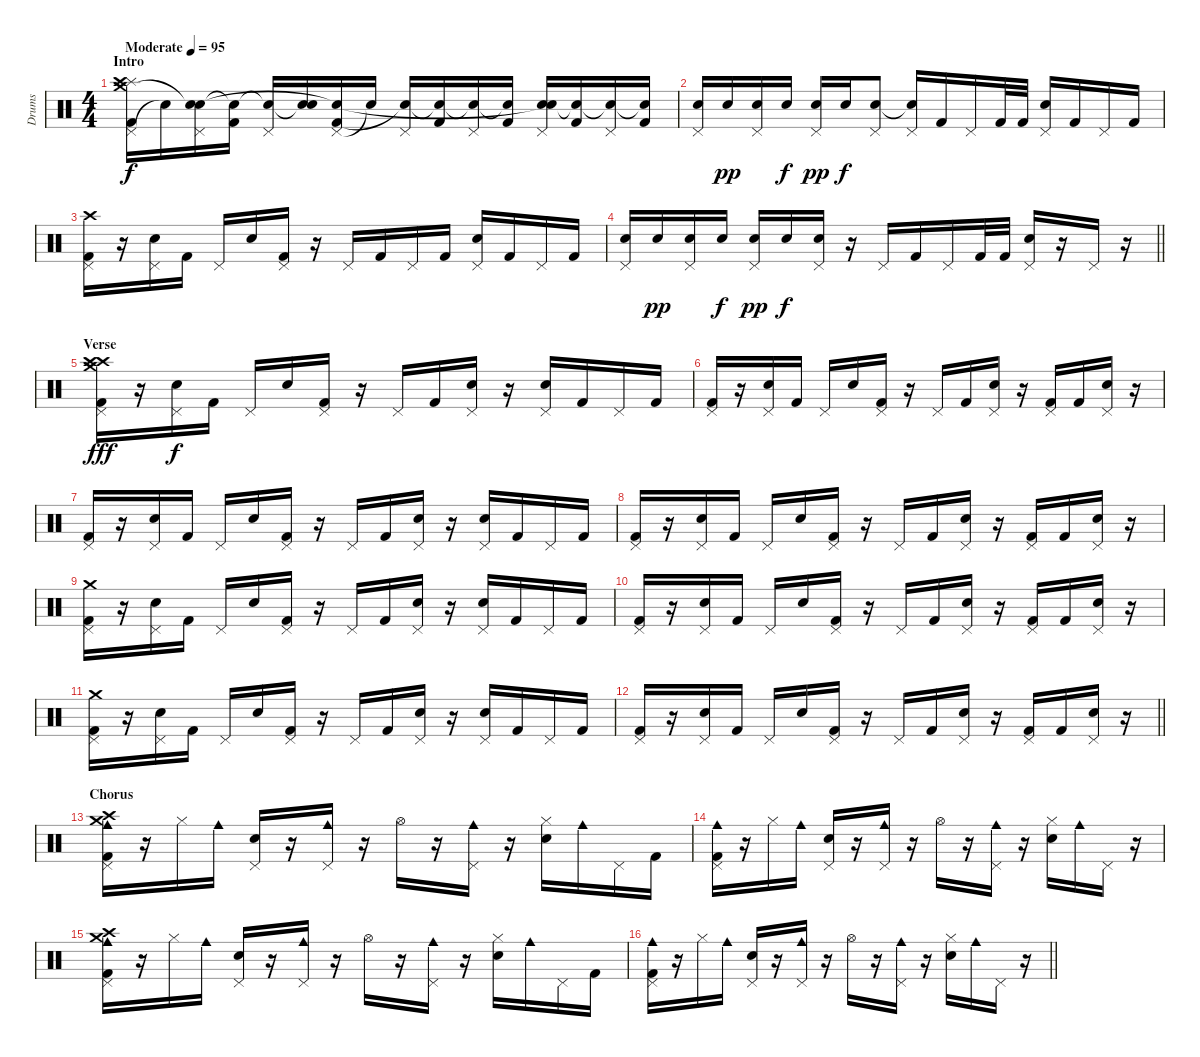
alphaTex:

\track ("Drums" "Drums") {instrument percussion}
\staff {score}
\articulation defaults
\ts (4 4)
\section ("" "Intro")
\tempo (95 "Moderate")
\clef neutral
\ks c
("Pedal Hi-Hat (hit)" "Kick (hit) 2" "Crash medium (hit)" "Splash (hit)" "Crash high (hit)").16{dy f} "Snare (hit)"{t}.16 ("Pedal Hi-Hat (hit)" "Snare (hit) 2" "Snare (hit)"{t}).16 ("Kick (hit) 2" "Snare (hit)"{t}).16 ("Pedal Hi-Hat (hit)" "Snare (hit)"{t}).16 ("Snare (hit) 2" "Snare (hit)"{t}).16 ("Pedal Hi-Hat (hit)" "Kick (hit) 2" "Snare (hit)"{t}).16 "Snare (hit)"{t}.16 ("Pedal Hi-Hat (hit)" "Snare (hit)"{t}).16 ("Kick (hit) 2" "Snare (hit)"{t}).16 ("Pedal Hi-Hat (hit)" "Snare (hit)"{t}).16 ("Kick (hit) 2" "Snare (hit)"{t}).16 ("Pedal Hi-Hat (hit)" "Snare (hit) 2" "Snare (hit)"{t}).16 ("Kick (hit) 2" "Snare (hit)"{t}).16 ("Pedal Hi-Hat (hit)" "Snare (hit)"{t}).16 ("Kick (hit) 2" "Snare (hit)"{t}).16 |
("Pedal Hi-Hat (hit)" "Snare (hit) 2").16 "Snare (hit) 2".16{dy pp} ("Pedal Hi-Hat (hit)" "Snare (hit) 2").16 "Snare (hit) 2".16{dy f} ("Pedal Hi-Hat (hit)" "Snare (hit) 2").16{dy pp} "Snare (hit) 2".16{dy f} ("Pedal Hi-Hat (hit)" "Snare (hit) 2").8 ("Pedal Hi-Hat (hit)" "Snare (hit)"{t}).16 "Kick (hit) 2".16 "Pedal Hi-Hat (hit)".16 "Kick (hit) 2".32 "Kick (hit) 2".32 ("Pedal Hi-Hat (hit)" "Snare (hit) 2").16 "Kick (hit) 2".16 "Pedal Hi-Hat (hit)".16 "Kick (hit) 2".16 |
("Pedal Hi-Hat (hit)" "Kick (hit) 2" "Crash high (hit)").16 r.16 ("Pedal Hi-Hat (hit)" "Snare (hit) 2").16 "Kick (hit) 2".16 "Pedal Hi-Hat (hit)".16 "Snare (hit) 2".16 ("Pedal Hi-Hat (hit)" "Kick (hit) 2").16 r.16 "Pedal Hi-Hat (hit)".16 "Kick (hit) 2".16 "Pedal Hi-Hat (hit)".16 "Kick (hit) 2".16 ("Pedal Hi-Hat (hit)" "Snare (hit) 2").16 "Kick (hit) 2".16 "Pedal Hi-Hat (hit)".16 "Kick (hit) 2".16 |
\barLineRight lightlight
("Pedal Hi-Hat (hit)" "Snare (hit) 2").16 "Snare (hit) 2".16{dy pp} ("Pedal Hi-Hat (hit)" "Snare (hit) 2").16 "Snare (hit) 2".16{dy f} ("Pedal Hi-Hat (hit)" "Snare (hit) 2").16{dy pp} "Snare (hit) 2".16{dy f} ("Pedal Hi-Hat (hit)" "Snare (hit) 2").16 r.16 "Pedal Hi-Hat (hit)".16 "Kick (hit) 2".16 "Pedal Hi-Hat (hit)".16 "Kick (hit) 2".32 "Kick (hit) 2".32 ("Pedal Hi-Hat (hit)" "Snare (hit) 2").16 r.16 "Pedal Hi-Hat (hit)".16 r.16 |
\section ("" "Verse")
("Pedal Hi-Hat (hit)" "Kick (hit) 2" "Crash high (hit)" "Crash medium (hit)" "Crash high (hit)").16{dy fff} r.16 ("Pedal Hi-Hat (hit)" "Snare (hit) 2").16{dy f} "Kick (hit) 2".16 "Pedal Hi-Hat (hit)".16 "Snare (hit) 2".16 ("Pedal Hi-Hat (hit)" "Kick (hit) 2").16 r.16 "Pedal Hi-Hat (hit)".16 "Kick (hit) 2".16 ("Pedal Hi-Hat (hit)" "Snare (hit) 2").16 r.16 ("Pedal Hi-Hat (hit)" "Snare (hit) 2").16 "Kick (hit) 2".16 "Pedal Hi-Hat (hit)".16 "Kick (hit) 2".16 |
("Pedal Hi-Hat (hit)" "Kick (hit) 2").16 r.16 ("Pedal Hi-Hat (hit)" "Snare (hit) 2").16 "Kick (hit) 2".16 "Pedal Hi-Hat (hit)".16 "Snare (hit) 2".16 ("Pedal Hi-Hat (hit)" "Kick (hit) 2").16 r.16 "Pedal Hi-Hat (hit)".16 "Kick (hit) 2".16 ("Pedal Hi-Hat (hit)" "Snare (hit) 2").16 r.16 ("Pedal Hi-Hat (hit)" "Kick (hit) 2").16 "Kick (hit) 2".16 ("Pedal Hi-Hat (hit)" "Snare (hit) 2").16 r.16 |
("Pedal Hi-Hat (hit)" "Kick (hit) 2").16 r.16 ("Pedal Hi-Hat (hit)" "Snare (hit) 2").16 "Kick (hit) 2".16 "Pedal Hi-Hat (hit)".16 "Snare (hit) 2".16 ("Pedal Hi-Hat (hit)" "Kick (hit) 2").16 r.16 "Pedal Hi-Hat (hit)".16 "Kick (hit) 2".16 ("Pedal Hi-Hat (hit)" "Snare (hit) 2").16 r.16 ("Pedal Hi-Hat (hit)" "Snare (hit) 2").16 "Kick (hit) 2".16 "Pedal Hi-Hat (hit)".16 "Kick (hit) 2".16 |
("Pedal Hi-Hat (hit)" "Kick (hit) 2").16 r.16 ("Pedal Hi-Hat (hit)" "Snare (hit) 2").16 "Kick (hit) 2".16 "Pedal Hi-Hat (hit)".16 "Snare (hit) 2".16 ("Pedal Hi-Hat (hit)" "Kick (hit) 2").16 r.16 "Pedal Hi-Hat (hit)".16 "Kick (hit) 2".16 ("Pedal Hi-Hat (hit)" "Snare (hit) 2").16 r.16 ("Pedal Hi-Hat (hit)" "Kick (hit) 2").16 "Kick (hit) 2".16 ("Pedal Hi-Hat (hit)" "Snare (hit) 2").16 r.16 |
("Pedal Hi-Hat (hit)" "Kick (hit) 2" "Crash medium (hit)").16 r.16 ("Pedal Hi-Hat (hit)" "Snare (hit) 2").16 "Kick (hit) 2".16 "Pedal Hi-Hat (hit)".16 "Snare (hit) 2".16 ("Pedal Hi-Hat (hit)" "Kick (hit) 2").16 r.16 "Pedal Hi-Hat (hit)".16 "Kick (hit) 2".16 ("Pedal Hi-Hat (hit)" "Snare (hit) 2").16 r.16 ("Pedal Hi-Hat (hit)" "Snare (hit) 2").16 "Kick (hit) 2".16 "Pedal Hi-Hat (hit)".16 "Kick (hit) 2".16 |
("Pedal Hi-Hat (hit)" "Kick (hit) 2").16 r.16 ("Pedal Hi-Hat (hit)" "Snare (hit) 2").16 "Kick (hit) 2".16 "Pedal Hi-Hat (hit)".16 "Snare (hit) 2".16 ("Pedal Hi-Hat (hit)" "Kick (hit) 2").16 r.16 "Pedal Hi-Hat (hit)".16 "Kick (hit) 2".16 ("Pedal Hi-Hat (hit)" "Snare (hit) 2").16 r.16 ("Pedal Hi-Hat (hit)" "Kick (hit) 2").16 "Kick (hit) 2".16 ("Pedal Hi-Hat (hit)" "Snare (hit) 2").16 r.16 |
("Pedal Hi-Hat (hit)" "Kick (hit) 2" "Crash medium (hit)").16 r.16 ("Pedal Hi-Hat (hit)" "Snare (hit) 2").16 "Kick (hit) 2".16 "Pedal Hi-Hat (hit)".16 "Snare (hit) 2".16 ("Pedal Hi-Hat (hit)" "Kick (hit) 2").16 r.16 "Pedal Hi-Hat (hit)".16 "Kick (hit) 2".16 ("Pedal Hi-Hat (hit)" "Snare (hit) 2").16 r.16 ("Pedal Hi-Hat (hit)" "Snare (hit) 2").16 "Kick (hit) 2".16 "Pedal Hi-Hat (hit)".16 "Kick (hit) 2".16 |
\barLineRight lightlight
("Pedal Hi-Hat (hit)" "Kick (hit) 2").16 r.16 ("Pedal Hi-Hat (hit)" "Snare (hit) 2").16 "Kick (hit) 2".16 "Pedal Hi-Hat (hit)".16 "Snare (hit) 2".16 ("Pedal Hi-Hat (hit)" "Kick (hit) 2").16 r.16 "Pedal Hi-Hat (hit)".16 "Kick (hit) 2".16 ("Pedal Hi-Hat (hit)" "Snare (hit) 2").16 r.16 ("Pedal Hi-Hat (hit)" "Kick (hit) 2").16 "Kick (hit) 2".16 ("Pedal Hi-Hat (hit)" "Snare (hit) 2").16 r.16 |
\section ("" "Chorus")
("Pedal Hi-Hat (hit)" "Kick (hit) 2" "Crash high (hit)" "Crash medium (hit)" "Cowbell medium (hit)").16 r.16 "Hi-Hat (closed)".16 "Cowbell medium (hit)".16 ("Pedal Hi-Hat (hit)" "Snare (hit) 2").16 r.16 ("Pedal Hi-Hat (hit)" "Cowbell medium (hit)").16 r.16 "Hi-Hat (open)".16 r.16 ("Pedal Hi-Hat (hit)" "Cowbell medium (hit)").16 r.16 ("Hi-Hat (closed)" "Snare (hit) 2").16 "Cowbell medium (hit)".16 "Pedal Hi-Hat (hit)".16 "Kick (hit) 2".16 |
("Pedal Hi-Hat (hit)" "Kick (hit) 2" "Cowbell medium (hit)").16 r.16 "Hi-Hat (closed)".16 "Cowbell medium (hit)".16 ("Pedal Hi-Hat (hit)" "Snare (hit) 2").16 r.16 ("Pedal Hi-Hat (hit)" "Cowbell medium (hit)").16 r.16 "Hi-Hat (open)".16 r.16 ("Pedal Hi-Hat (hit)" "Cowbell medium (hit)").16 r.16 ("Hi-Hat (closed)" "Snare (hit) 2").16 "Cowbell medium (hit)".16 "Pedal Hi-Hat (hit)".16 r.16 |
("Pedal Hi-Hat (hit)" "Kick (hit) 2" "Crash high (hit)" "Crash medium (hit)" "Cowbell medium (hit)").16 r.16 "Hi-Hat (closed)".16 "Cowbell medium (hit)".16 ("Pedal Hi-Hat (hit)" "Snare (hit) 2").16 r.16 ("Pedal Hi-Hat (hit)" "Cowbell medium (hit)").16 r.16 "Hi-Hat (open)".16 r.16 ("Pedal Hi-Hat (hit)" "Cowbell medium (hit)").16 r.16 ("Hi-Hat (closed)" "Snare (hit) 2").16 "Cowbell medium (hit)".16 "Pedal Hi-Hat (hit)".16 "Kick (hit) 2".16 |
\barLineRight lightlight
("Pedal Hi-Hat (hit)" "Kick (hit) 2" "Cowbell medium (hit)").16 r.16 "Hi-Hat (closed)".16 "Cowbell medium (hit)".16 ("Pedal Hi-Hat (hit)" "Snare (hit) 2").16 r.16 ("Pedal Hi-Hat (hit)" "Cowbell medium (hit)").16 r.16 "Hi-Hat (open)".16 r.16 ("Pedal Hi-Hat (hit)" "Cowbell medium (hit)").16 r.16 ("Hi-Hat (closed)" "Snare (hit) 2").16 "Cowbell medium (hit)".16 "Pedal Hi-Hat (hit)".16 r.16
